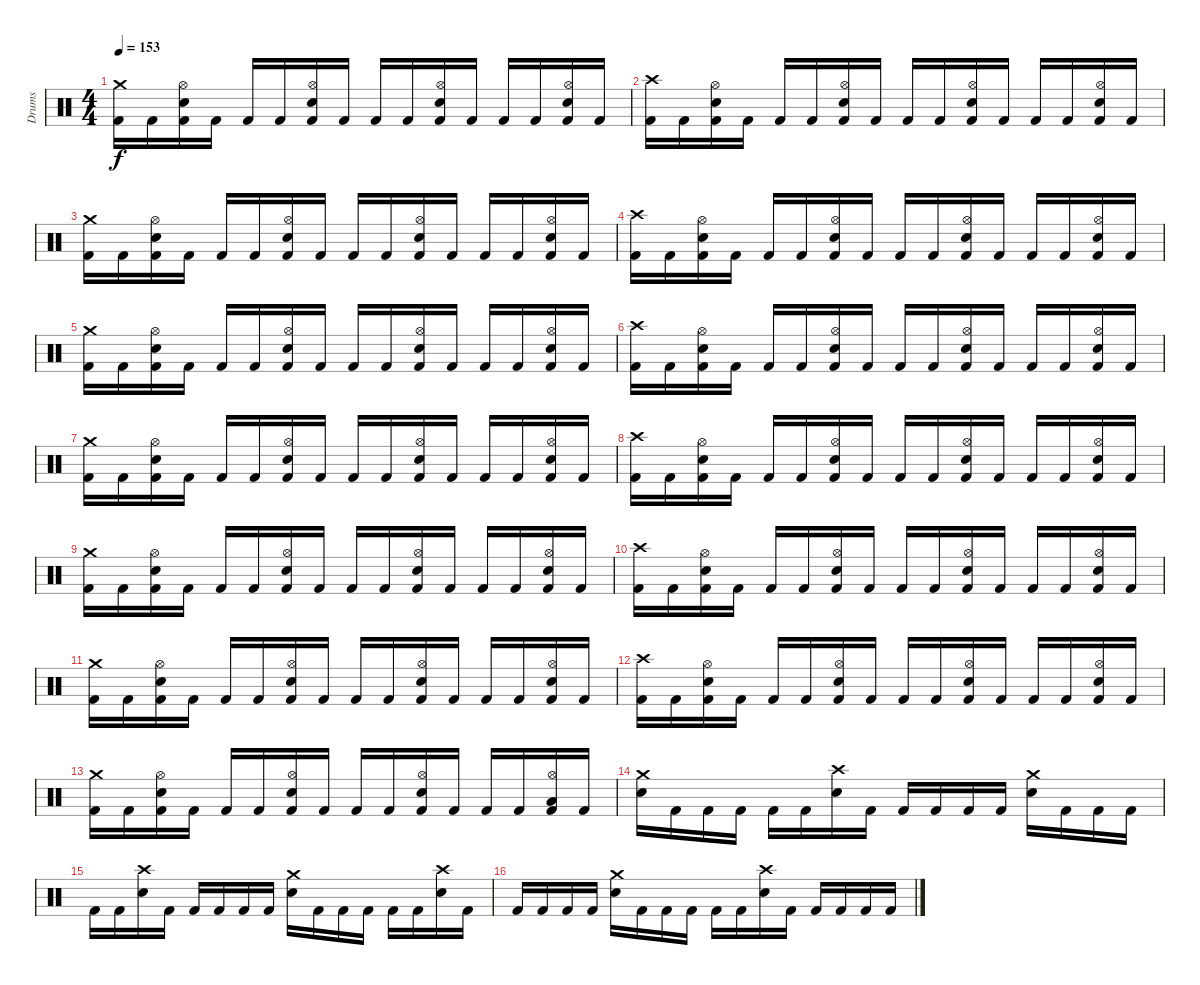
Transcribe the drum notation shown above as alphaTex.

\track ("Drums" "Drums") {instrument percussion}
\staff {score}
\articulation defaults
\ts (4 4)
\tempo 153
\clef neutral
\ks c
("Crash medium (hit)" "Kick (hit) 2").16{dy f} "Kick (hit) 2".16 ("Hi-Hat (open)" "Snare (hit) 2" "Kick (hit) 2").16 "Kick (hit) 2".16 "Kick (hit) 2".16 "Kick (hit) 2".16 ("Hi-Hat (open)" "Snare (hit) 2" "Kick (hit) 2").16 "Kick (hit) 2".16 "Kick (hit) 2".16 "Kick (hit) 2".16 ("Hi-Hat (open)" "Snare (hit) 2" "Kick (hit) 2").16 "Kick (hit) 2".16 "Kick (hit) 2".16 "Kick (hit) 2".16 ("Hi-Hat (open)" "Snare (hit) 2" "Kick (hit) 2").16 "Kick (hit) 2".16 |
("Crash high (hit)" "Kick (hit) 2").16 "Kick (hit) 2".16 ("Hi-Hat (open)" "Snare (hit) 2" "Kick (hit) 2").16 "Kick (hit) 2".16 "Kick (hit) 2".16 "Kick (hit) 2".16 ("Hi-Hat (open)" "Snare (hit) 2" "Kick (hit) 2").16 "Kick (hit) 2".16 "Kick (hit) 2".16 "Kick (hit) 2".16 ("Hi-Hat (open)" "Snare (hit) 2" "Kick (hit) 2").16 "Kick (hit) 2".16 "Kick (hit) 2".16 "Kick (hit) 2".16 ("Hi-Hat (open)" "Snare (hit) 2" "Kick (hit) 2").16 "Kick (hit) 2".16 |
("Crash medium (hit)" "Kick (hit) 2").16 "Kick (hit) 2".16 ("Hi-Hat (open)" "Snare (hit) 2" "Kick (hit) 2").16 "Kick (hit) 2".16 "Kick (hit) 2".16 "Kick (hit) 2".16 ("Hi-Hat (open)" "Snare (hit) 2" "Kick (hit) 2").16 "Kick (hit) 2".16 "Kick (hit) 2".16 "Kick (hit) 2".16 ("Hi-Hat (open)" "Snare (hit) 2" "Kick (hit) 2").16 "Kick (hit) 2".16 "Kick (hit) 2".16 "Kick (hit) 2".16 ("Hi-Hat (open)" "Snare (hit) 2" "Kick (hit) 2").16 "Kick (hit) 2".16 |
("Crash high (hit)" "Kick (hit) 2").16 "Kick (hit) 2".16 ("Hi-Hat (open)" "Snare (hit) 2" "Kick (hit) 2").16 "Kick (hit) 2".16 "Kick (hit) 2".16 "Kick (hit) 2".16 ("Hi-Hat (open)" "Snare (hit) 2" "Kick (hit) 2").16 "Kick (hit) 2".16 "Kick (hit) 2".16 "Kick (hit) 2".16 ("Hi-Hat (open)" "Snare (hit) 2" "Kick (hit) 2").16 "Kick (hit) 2".16 "Kick (hit) 2".16 "Kick (hit) 2".16 ("Hi-Hat (open)" "Snare (hit) 2" "Kick (hit) 2").16 "Kick (hit) 2".16 |
("Crash medium (hit)" "Kick (hit) 2").16 "Kick (hit) 2".16 ("Hi-Hat (open)" "Snare (hit) 2" "Kick (hit) 2").16 "Kick (hit) 2".16 "Kick (hit) 2".16 "Kick (hit) 2".16 ("Hi-Hat (open)" "Snare (hit) 2" "Kick (hit) 2").16 "Kick (hit) 2".16 "Kick (hit) 2".16 "Kick (hit) 2".16 ("Hi-Hat (open)" "Snare (hit) 2" "Kick (hit) 2").16 "Kick (hit) 2".16 "Kick (hit) 2".16 "Kick (hit) 2".16 ("Hi-Hat (open)" "Snare (hit) 2" "Kick (hit) 2").16 "Kick (hit) 2".16 |
("Crash high (hit)" "Kick (hit) 2").16 "Kick (hit) 2".16 ("Hi-Hat (open)" "Snare (hit) 2" "Kick (hit) 2").16 "Kick (hit) 2".16 "Kick (hit) 2".16 "Kick (hit) 2".16 ("Hi-Hat (open)" "Snare (hit) 2" "Kick (hit) 2").16 "Kick (hit) 2".16 "Kick (hit) 2".16 "Kick (hit) 2".16 ("Hi-Hat (open)" "Snare (hit) 2" "Kick (hit) 2").16 "Kick (hit) 2".16 "Kick (hit) 2".16 "Kick (hit) 2".16 ("Hi-Hat (open)" "Snare (hit) 2" "Kick (hit) 2").16 "Kick (hit) 2".16 |
("Crash medium (hit)" "Kick (hit) 2").16 "Kick (hit) 2".16 ("Hi-Hat (open)" "Snare (hit) 2" "Kick (hit) 2").16 "Kick (hit) 2".16 "Kick (hit) 2".16 "Kick (hit) 2".16 ("Hi-Hat (open)" "Snare (hit) 2" "Kick (hit) 2").16 "Kick (hit) 2".16 "Kick (hit) 2".16 "Kick (hit) 2".16 ("Hi-Hat (open)" "Snare (hit) 2" "Kick (hit) 2").16 "Kick (hit) 2".16 "Kick (hit) 2".16 "Kick (hit) 2".16 ("Hi-Hat (open)" "Snare (hit) 2" "Kick (hit) 2").16 "Kick (hit) 2".16 |
("Crash high (hit)" "Kick (hit) 2").16 "Kick (hit) 2".16 ("Hi-Hat (open)" "Snare (hit) 2" "Kick (hit) 2").16 "Kick (hit) 2".16 "Kick (hit) 2".16 "Kick (hit) 2".16 ("Hi-Hat (open)" "Snare (hit) 2" "Kick (hit) 2").16 "Kick (hit) 2".16 "Kick (hit) 2".16 "Kick (hit) 2".16 ("Hi-Hat (open)" "Snare (hit) 2" "Kick (hit) 2").16 "Kick (hit) 2".16 "Kick (hit) 2".16 "Kick (hit) 2".16 ("Hi-Hat (open)" "Snare (hit) 2" "Kick (hit) 2").16 "Kick (hit) 2".16 |
("Crash medium (hit)" "Kick (hit) 2").16 "Kick (hit) 2".16 ("Hi-Hat (open)" "Snare (hit) 2" "Kick (hit) 2").16 "Kick (hit) 2".16 "Kick (hit) 2".16 "Kick (hit) 2".16 ("Hi-Hat (open)" "Snare (hit) 2" "Kick (hit) 2").16 "Kick (hit) 2".16 "Kick (hit) 2".16 "Kick (hit) 2".16 ("Hi-Hat (open)" "Snare (hit) 2" "Kick (hit) 2").16 "Kick (hit) 2".16 "Kick (hit) 2".16 "Kick (hit) 2".16 ("Hi-Hat (open)" "Snare (hit) 2" "Kick (hit) 2").16 "Kick (hit) 2".16 |
("Crash high (hit)" "Kick (hit) 2").16 "Kick (hit) 2".16 ("Hi-Hat (open)" "Snare (hit) 2" "Kick (hit) 2").16 "Kick (hit) 2".16 "Kick (hit) 2".16 "Kick (hit) 2".16 ("Hi-Hat (open)" "Snare (hit) 2" "Kick (hit) 2").16 "Kick (hit) 2".16 "Kick (hit) 2".16 "Kick (hit) 2".16 ("Hi-Hat (open)" "Snare (hit) 2" "Kick (hit) 2").16 "Kick (hit) 2".16 "Kick (hit) 2".16 "Kick (hit) 2".16 ("Hi-Hat (open)" "Snare (hit) 2" "Kick (hit) 2").16 "Kick (hit) 2".16 |
("Crash medium (hit)" "Kick (hit) 2").16 "Kick (hit) 2".16 ("Hi-Hat (open)" "Snare (hit) 2" "Kick (hit) 2").16 "Kick (hit) 2".16 "Kick (hit) 2".16 "Kick (hit) 2".16 ("Hi-Hat (open)" "Snare (hit) 2" "Kick (hit) 2").16 "Kick (hit) 2".16 "Kick (hit) 2".16 "Kick (hit) 2".16 ("Hi-Hat (open)" "Snare (hit) 2" "Kick (hit) 2").16 "Kick (hit) 2".16 "Kick (hit) 2".16 "Kick (hit) 2".16 ("Hi-Hat (open)" "Snare (hit) 2" "Kick (hit) 2").16 "Kick (hit) 2".16 |
("Crash high (hit)" "Kick (hit) 2").16 "Kick (hit) 2".16 ("Hi-Hat (open)" "Snare (hit) 2" "Kick (hit) 2").16 "Kick (hit) 2".16 "Kick (hit) 2".16 "Kick (hit) 2".16 ("Hi-Hat (open)" "Snare (hit) 2" "Kick (hit) 2").16 "Kick (hit) 2".16 "Kick (hit) 2".16 "Kick (hit) 2".16 ("Hi-Hat (open)" "Snare (hit) 2" "Kick (hit) 2").16 "Kick (hit) 2".16 "Kick (hit) 2".16 "Kick (hit) 2".16 ("Hi-Hat (open)" "Snare (hit) 2" "Kick (hit) 2").16 "Kick (hit) 2".16 |
("Crash medium (hit)" "Kick (hit) 2").16 "Kick (hit) 2".16 ("Hi-Hat (open)" "Snare (hit) 2" "Kick (hit) 2").16 "Kick (hit) 2".16 "Kick (hit) 2".16 "Kick (hit) 2".16 ("Hi-Hat (open)" "Snare (hit) 2" "Kick (hit) 2").16 "Kick (hit) 2".16 "Kick (hit) 2".16 "Kick (hit) 2".16 ("Hi-Hat (open)" "Snare (hit) 2" "Kick (hit) 2").16 "Kick (hit) 2".16 "Kick (hit) 2".16 "Kick (hit) 2".16 ("Hi-Hat (open)" "Low Tom (hit)" "Kick (hit) 2").16 "Kick (hit) 2".16 |
("Crash medium (hit)" "Snare (hit) 2").16 "Kick (hit) 2".16 "Kick (hit) 2".16 "Kick (hit) 2".16 "Kick (hit) 2".16 "Kick (hit) 2".16 ("Crash high (hit)" "Snare (hit) 2").16 "Kick (hit) 2".16 "Kick (hit) 2".16 "Kick (hit) 2".16 "Kick (hit) 2".16 "Kick (hit) 2".16 ("Crash medium (hit)" "Snare (hit) 2").16 "Kick (hit) 2".16 "Kick (hit) 2".16 "Kick (hit) 2".16 |
"Kick (hit) 2".16 "Kick (hit) 2".16 ("Crash high (hit)" "Snare (hit) 2").16 "Kick (hit) 2".16 "Kick (hit) 2".16 "Kick (hit) 2".16 "Kick (hit) 2".16 "Kick (hit) 2".16 ("Crash medium (hit)" "Snare (hit) 2").16 "Kick (hit) 2".16 "Kick (hit) 2".16 "Kick (hit) 2".16 "Kick (hit) 2".16 "Kick (hit) 2".16 ("Crash high (hit)" "Snare (hit) 2").16 "Kick (hit) 2".16 |
"Kick (hit) 2".16 "Kick (hit) 2".16 "Kick (hit) 2".16 "Kick (hit) 2".16 ("Crash medium (hit)" "Snare (hit) 2").16 "Kick (hit) 2".16 "Kick (hit) 2".16 "Kick (hit) 2".16 "Kick (hit) 2".16 "Kick (hit) 2".16 ("Crash high (hit)" "Snare (hit) 2").16 "Kick (hit) 2".16 "Kick (hit) 2".16 "Kick (hit) 2".16 "Kick (hit) 2".16 "Kick (hit) 2".16
